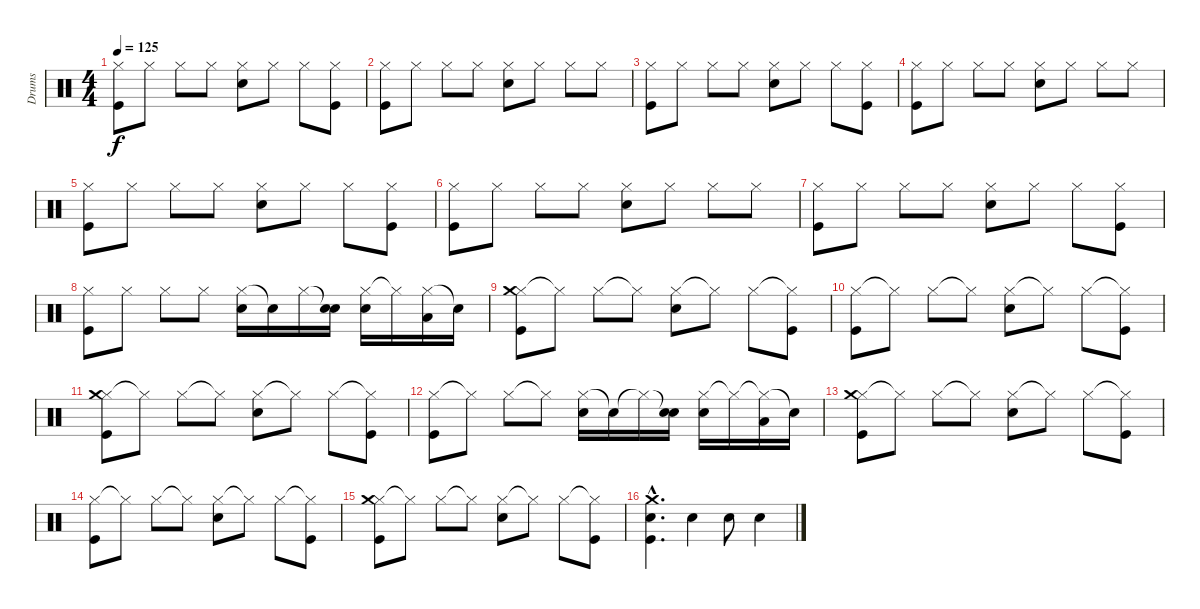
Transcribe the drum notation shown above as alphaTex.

\track ("Drums" "Drums") {instrument percussion}
\staff {score}
\articulation defaults
\ts (4 4)
\tempo 125
\clef neutral
\ks c
("Hi-Hat (closed)" "Kick (hit)").8{dy f} "Hi-Hat (closed)".8 "Hi-Hat (closed)".8 "Hi-Hat (closed)".8 ("Hi-Hat (closed)" "Snare (hit) 2").8 "Hi-Hat (closed)".8 "Hi-Hat (closed)".8 ("Hi-Hat (closed)" "Kick (hit)").8 |
("Hi-Hat (closed)" "Kick (hit)").8 "Hi-Hat (closed)".8 "Hi-Hat (closed)".8 "Hi-Hat (closed)".8 ("Hi-Hat (closed)" "Snare (hit) 2").8 "Hi-Hat (closed)".8 "Hi-Hat (closed)".8 "Hi-Hat (closed)".8 |
("Hi-Hat (closed)" "Kick (hit)").8 "Hi-Hat (closed)".8 "Hi-Hat (closed)".8 "Hi-Hat (closed)".8 ("Hi-Hat (closed)" "Snare (hit) 2").8 "Hi-Hat (closed)".8 "Hi-Hat (closed)".8 ("Hi-Hat (closed)" "Kick (hit)").8 |
("Hi-Hat (closed)" "Kick (hit)").8 "Hi-Hat (closed)".8 "Hi-Hat (closed)".8 "Hi-Hat (closed)".8 ("Hi-Hat (closed)" "Snare (hit) 2").8 "Hi-Hat (closed)".8 "Hi-Hat (closed)".8 "Hi-Hat (closed)".8 |
("Hi-Hat (closed)" "Kick (hit)").8 "Hi-Hat (closed)".8 "Hi-Hat (closed)".8 "Hi-Hat (closed)".8 ("Hi-Hat (closed)" "Snare (hit) 2").8 "Hi-Hat (closed)".8 "Hi-Hat (closed)".8 ("Hi-Hat (closed)" "Kick (hit)").8 |
("Hi-Hat (closed)" "Kick (hit)").8 "Hi-Hat (closed)".8 "Hi-Hat (closed)".8 "Hi-Hat (closed)".8 ("Hi-Hat (closed)" "Snare (hit) 2").8 "Hi-Hat (closed)".8 "Hi-Hat (closed)".8 "Hi-Hat (closed)".8 |
("Hi-Hat (closed)" "Kick (hit)").8 "Hi-Hat (closed)".8 "Hi-Hat (closed)".8 "Hi-Hat (closed)".8 ("Hi-Hat (closed)" "Snare (hit) 2").8 "Hi-Hat (closed)".8 "Hi-Hat (closed)".8 ("Hi-Hat (closed)" "Kick (hit)").8 |
("Hi-Hat (closed)" "Kick (hit)").8 "Hi-Hat (closed)".8 "Hi-Hat (closed)".8 "Hi-Hat (closed)".8 ("Hi-Hat (closed)" "Snare (hit) 2").16 "Snare (hit)"{t}.16 "Hi-Hat (closed)".16 ("Snare (hit)"{t} "Snare (hit) 2").16 ("Hi-Hat (closed)" "Snare (hit) 2").16 "Hi-Hat (closed)"{t}.16 ("Hi-Hat (closed)" "Low Tom (hit)").16 "Snare (hit)"{t}.16 |
("Hi-Hat (closed)" "Kick (hit)" "Crash medium (hit)").8 "Hi-Hat (closed)"{t}.8 "Hi-Hat (closed)".8 "Hi-Hat (closed)"{t}.8 ("Hi-Hat (closed)" "Snare (hit) 2").8 "Hi-Hat (closed)"{t}.8 "Hi-Hat (closed)".8 ("Hi-Hat (closed)"{t} "Kick (hit)").8 |
("Hi-Hat (closed)" "Kick (hit)").8 "Hi-Hat (closed)"{t}.8 "Hi-Hat (closed)".8 "Hi-Hat (closed)"{t}.8 ("Hi-Hat (closed)" "Snare (hit) 2").8 "Hi-Hat (closed)"{t}.8 "Hi-Hat (closed)".8 ("Hi-Hat (closed)"{t} "Kick (hit)").8 |
("Hi-Hat (closed)" "Kick (hit)" "Crash medium (hit)").8 "Hi-Hat (closed)"{t}.8 "Hi-Hat (closed)".8 "Hi-Hat (closed)"{t}.8 ("Hi-Hat (closed)" "Snare (hit) 2").8 "Hi-Hat (closed)"{t}.8 "Hi-Hat (closed)".8 ("Hi-Hat (closed)"{t} "Kick (hit)").8 |
("Hi-Hat (closed)" "Kick (hit)").8 "Hi-Hat (closed)"{t}.8 "Hi-Hat (closed)".8 "Hi-Hat (closed)"{t}.8 ("Hi-Hat (closed)" "Snare (hit) 2").16 "Snare (hit)"{t}.16 "Hi-Hat (closed)"{t}.16 ("Snare (hit)"{t} "Snare (hit) 2").16 ("Hi-Hat (closed)" "Snare (hit) 2").16 "Hi-Hat (closed)"{t}.16 ("Hi-Hat (closed)"{t} "Low Tom (hit)").16 "Snare (hit)"{t}.16 |
("Hi-Hat (closed)" "Kick (hit)" "Crash medium (hit)").8 "Hi-Hat (closed)"{t}.8 "Hi-Hat (closed)".8 "Hi-Hat (closed)"{t}.8 ("Hi-Hat (closed)" "Snare (hit) 2").8 "Hi-Hat (closed)"{t}.8 "Hi-Hat (closed)".8 ("Hi-Hat (closed)"{t} "Kick (hit)").8 |
("Hi-Hat (closed)" "Kick (hit)").8 "Hi-Hat (closed)"{t}.8 "Hi-Hat (closed)".8 "Hi-Hat (closed)"{t}.8 ("Hi-Hat (closed)" "Snare (hit) 2").8 "Hi-Hat (closed)"{t}.8 "Hi-Hat (closed)".8 ("Hi-Hat (closed)"{t} "Kick (hit)").8 |
("Hi-Hat (closed)" "Kick (hit)" "Crash medium (hit)").8 "Hi-Hat (closed)"{t}.8 "Hi-Hat (closed)".8 "Hi-Hat (closed)"{t}.8 ("Hi-Hat (closed)" "Snare (hit) 2").8 "Hi-Hat (closed)"{t}.8 "Hi-Hat (closed)".8 ("Hi-Hat (closed)"{t} "Kick (hit)").8 |
("Crash medium (hit)"{hac} "Snare (hit) 2"{hac} "Kick (hit)"{hac}).4{d} "Snare (hit) 2".4 "Snare (hit) 2".8 "Snare (hit) 2".4
